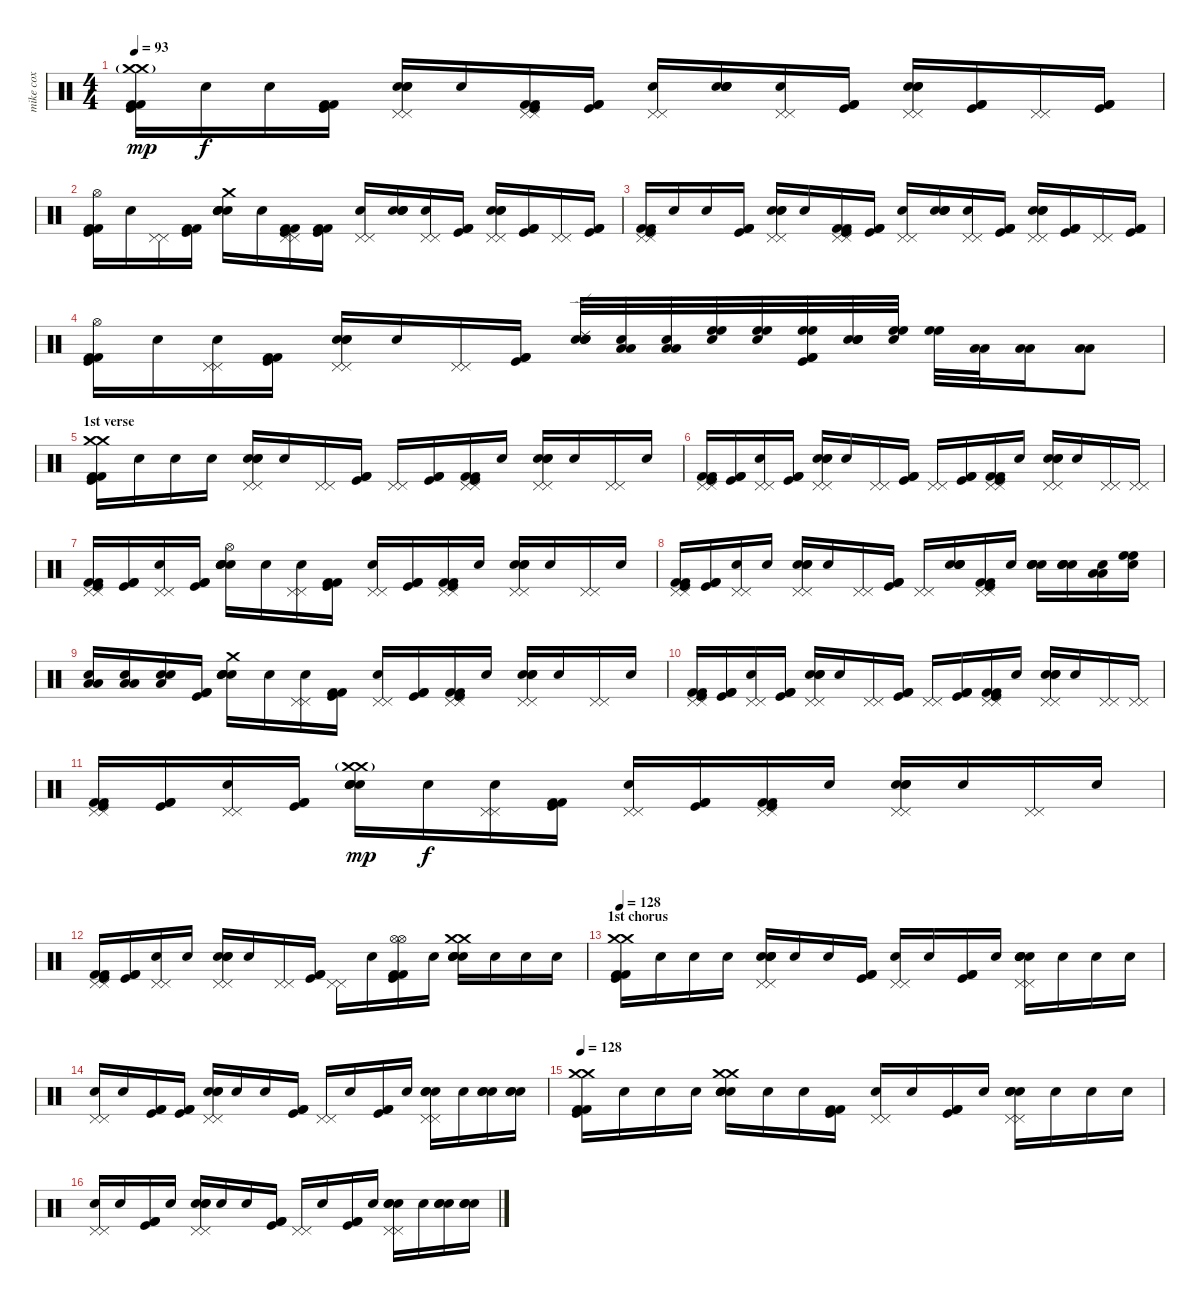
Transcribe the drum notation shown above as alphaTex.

\track ("mike cox" "mike cox") {instrument percussion}
\staff {score}
\articulation defaults
\ts (4 4)
\tempo 93
\clef neutral
\ks c
("Crash medium (hit)"{g} "Crash medium (hit)"{g} "Kick (hit)" "Kick (hit) 2" "Kick (hit) 2").16{dy mp} "Snare (hit)".16{dy f} "Snare (hit)".16 ("Kick (hit)" "Kick (hit) 2" "Kick (hit) 2").16 ("Pedal Hi-Hat (hit)" "Electric Snare (hit)" "Electric Snare (hit)" "Snare (hit) 2" "Pedal Hi-Hat (hit)").16 "Snare (hit)".16 ("Pedal Hi-Hat (hit)" "Pedal Hi-Hat (hit)" "Kick (hit)" "Kick (hit) 2" "Kick (hit) 2").16 ("Kick (hit)" "Kick (hit) 2" "Kick (hit) 2").16 ("Pedal Hi-Hat (hit)" "Pedal Hi-Hat (hit)" "Snare (hit)").16 ("Electric Snare (hit)" "Electric Snare (hit)" "Snare (hit) 2" "Snare (hit)").16 ("Pedal Hi-Hat (hit)" "Pedal Hi-Hat (hit)" "Snare (hit)").16 ("Kick (hit)" "Kick (hit) 2" "Kick (hit) 2").16 ("Pedal Hi-Hat (hit)" "Electric Snare (hit)" "Electric Snare (hit)" "Snare (hit) 2" "Pedal Hi-Hat (hit)").16 ("Kick (hit)" "Kick (hit) 2" "Kick (hit) 2").16 ("Pedal Hi-Hat (hit)" "Pedal Hi-Hat (hit)").16 ("Kick (hit)" "Kick (hit) 2" "Kick (hit) 2").16 |
("Hi-Hat (open)" "Kick (hit)" "Kick (hit) 2" "Kick (hit) 2").16 "Snare (hit)".16 ("Pedal Hi-Hat (hit)" "Pedal Hi-Hat (hit)").16 ("Kick (hit)" "Kick (hit) 2" "Kick (hit) 2").16 ("Crash medium (hit)" "Electric Snare (hit)" "Electric Snare (hit)" "Snare (hit) 2" "Snare (hit)").16 "Snare (hit)".16 ("Pedal Hi-Hat (hit)" "Pedal Hi-Hat (hit)" "Kick (hit)" "Kick (hit) 2" "Kick (hit) 2").16 ("Kick (hit)" "Kick (hit) 2" "Kick (hit) 2").16 ("Pedal Hi-Hat (hit)" "Pedal Hi-Hat (hit)" "Snare (hit)").16 ("Electric Snare (hit)" "Electric Snare (hit)" "Snare (hit) 2" "Snare (hit)").16 ("Pedal Hi-Hat (hit)" "Pedal Hi-Hat (hit)" "Snare (hit)").16 ("Kick (hit)" "Kick (hit) 2" "Kick (hit) 2").16 ("Pedal Hi-Hat (hit)" "Electric Snare (hit)" "Electric Snare (hit)" "Snare (hit) 2" "Pedal Hi-Hat (hit)").16 ("Kick (hit)" "Kick (hit) 2" "Kick (hit) 2").16 ("Pedal Hi-Hat (hit)" "Pedal Hi-Hat (hit)").16 ("Kick (hit)" "Kick (hit) 2" "Kick (hit) 2").16 |
("Pedal Hi-Hat (hit)" "Pedal Hi-Hat (hit)" "Kick (hit)" "Kick (hit) 2" "Kick (hit) 2").16 "Snare (hit)".16 "Snare (hit)".16 ("Kick (hit)" "Kick (hit) 2" "Kick (hit) 2").16 ("Pedal Hi-Hat (hit)" "Electric Snare (hit)" "Electric Snare (hit)" "Snare (hit) 2" "Pedal Hi-Hat (hit)").16 "Snare (hit)".16 ("Pedal Hi-Hat (hit)" "Pedal Hi-Hat (hit)" "Kick (hit)" "Kick (hit) 2" "Kick (hit) 2").16 ("Kick (hit)" "Kick (hit) 2" "Kick (hit) 2").16 ("Pedal Hi-Hat (hit)" "Pedal Hi-Hat (hit)" "Snare (hit)").16 ("Electric Snare (hit)" "Electric Snare (hit)" "Snare (hit) 2" "Snare (hit)").16 ("Pedal Hi-Hat (hit)" "Pedal Hi-Hat (hit)" "Snare (hit)").16 ("Kick (hit)" "Kick (hit) 2" "Kick (hit) 2").16 ("Pedal Hi-Hat (hit)" "Electric Snare (hit)" "Electric Snare (hit)" "Snare (hit) 2" "Pedal Hi-Hat (hit)").16 ("Kick (hit)" "Kick (hit) 2" "Kick (hit) 2").16 ("Pedal Hi-Hat (hit)" "Pedal Hi-Hat (hit)").16 ("Kick (hit)" "Kick (hit) 2" "Kick (hit) 2").16 |
("Hi-Hat (open)" "Kick (hit)" "Kick (hit) 2" "Kick (hit) 2").16 "Snare (hit)".16 ("Pedal Hi-Hat (hit)" "Pedal Hi-Hat (hit)" "Snare (hit)").16 ("Kick (hit)" "Kick (hit) 2" "Kick (hit) 2").16 ("Pedal Hi-Hat (hit)" "Electric Snare (hit)" "Electric Snare (hit)" "Snare (hit) 2" "Pedal Hi-Hat (hit)").16 "Snare (hit)".16 ("Pedal Hi-Hat (hit)" "Pedal Hi-Hat (hit)").16 ("Kick (hit)" "Kick (hit) 2" "Kick (hit) 2").16 ("Ride (edge) 2" "Electric Snare (hit)" "Electric Snare (hit)" "Snare (hit) 2" "Snare (hit)").32 ("Low Tom (hit)" "Low Tom (hit)" "Snare (hit)").32 ("Low Tom (hit)" "Low Tom (hit)" "Snare (hit)").32 ("High Floor Tom (hit)" "High Floor Tom (hit)" "Snare (hit)").32 ("High Floor Tom (hit)" "High Floor Tom (hit)" "Snare (hit)").32 ("High Floor Tom (hit)" "High Floor Tom (hit)" "Kick (hit)" "Kick (hit) 2" "Kick (hit) 2").32 ("Electric Snare (hit)" "Electric Snare (hit)" "Snare (hit) 2" "Snare (hit)").32 ("High Floor Tom (hit)" "High Floor Tom (hit)" "Snare (hit)").32 ("High Floor Tom (hit)" "High Floor Tom (hit)").32 ("Low Floor Tom (hit)" "Low Floor Tom (hit)").32 ("Low Floor Tom (hit)" "Low Floor Tom (hit)").16 ("Low Floor Tom (hit)" "Low Floor Tom (hit)").8 |
\section ("" "1st verse")
("Crash medium (hit)" "Crash medium (hit)" "Kick (hit)" "Kick (hit) 2" "Kick (hit) 2").16 "Snare (hit)".16 "Snare (hit)".16 "Snare (hit)".16 ("Pedal Hi-Hat (hit)" "Electric Snare (hit)" "Electric Snare (hit)" "Snare (hit) 2" "Pedal Hi-Hat (hit)").16 "Snare (hit)".16 ("Pedal Hi-Hat (hit)" "Pedal Hi-Hat (hit)").16 ("Kick (hit) 2" "Kick (hit)" "Kick (hit) 2").16 ("Pedal Hi-Hat (hit)" "Pedal Hi-Hat (hit)").16 ("Kick (hit)" "Kick (hit) 2" "Kick (hit) 2").16 ("Pedal Hi-Hat (hit)" "Pedal Hi-Hat (hit)" "Kick (hit)" "Kick (hit) 2" "Kick (hit) 2").16 "Snare (hit)".16 ("Pedal Hi-Hat (hit)" "Electric Snare (hit)" "Electric Snare (hit)" "Snare (hit) 2" "Pedal Hi-Hat (hit)").16 "Snare (hit)".16 ("Pedal Hi-Hat (hit)" "Pedal Hi-Hat (hit)").16 "Snare (hit)".16 |
("Pedal Hi-Hat (hit)" "Pedal Hi-Hat (hit)" "Kick (hit)" "Kick (hit) 2" "Kick (hit) 2").16 ("Kick (hit)" "Kick (hit) 2" "Kick (hit) 2").16 ("Pedal Hi-Hat (hit)" "Pedal Hi-Hat (hit)" "Snare (hit)").16 ("Kick (hit)" "Kick (hit) 2" "Kick (hit) 2").16 ("Pedal Hi-Hat (hit)" "Electric Snare (hit)" "Electric Snare (hit)" "Snare (hit) 2" "Pedal Hi-Hat (hit)").16 "Snare (hit)".16 ("Pedal Hi-Hat (hit)" "Pedal Hi-Hat (hit)").16 ("Kick (hit) 2" "Kick (hit)" "Kick (hit) 2").16 ("Pedal Hi-Hat (hit)" "Pedal Hi-Hat (hit)").16 ("Kick (hit)" "Kick (hit) 2" "Kick (hit) 2").16 ("Pedal Hi-Hat (hit)" "Pedal Hi-Hat (hit)" "Kick (hit)" "Kick (hit) 2" "Kick (hit) 2").16 "Snare (hit)".16 ("Pedal Hi-Hat (hit)" "Electric Snare (hit)" "Electric Snare (hit)" "Snare (hit) 2" "Pedal Hi-Hat (hit)").16 "Snare (hit)".16 ("Pedal Hi-Hat (hit)" "Pedal Hi-Hat (hit)").16 ("Pedal Hi-Hat (hit)" "Pedal Hi-Hat (hit)").16 |
("Pedal Hi-Hat (hit)" "Pedal Hi-Hat (hit)" "Kick (hit)" "Kick (hit) 2" "Kick (hit) 2").16 ("Kick (hit)" "Kick (hit) 2" "Kick (hit) 2").16 ("Pedal Hi-Hat (hit)" "Pedal Hi-Hat (hit)" "Snare (hit)").16 ("Kick (hit)" "Kick (hit) 2" "Kick (hit) 2").16 ("Hi-Hat (open)" "Electric Snare (hit)" "Electric Snare (hit)" "Snare (hit) 2" "Snare (hit)").16 "Snare (hit)".16 ("Pedal Hi-Hat (hit)" "Pedal Hi-Hat (hit)" "Snare (hit)").16 ("Kick (hit) 2" "Kick (hit)" "Kick (hit) 2").16 ("Pedal Hi-Hat (hit)" "Pedal Hi-Hat (hit)" "Snare (hit)").16 ("Kick (hit)" "Kick (hit) 2" "Kick (hit) 2").16 ("Pedal Hi-Hat (hit)" "Pedal Hi-Hat (hit)" "Kick (hit)" "Kick (hit) 2" "Kick (hit) 2").16 "Snare (hit)".16 ("Pedal Hi-Hat (hit)" "Electric Snare (hit)" "Electric Snare (hit)" "Snare (hit) 2" "Pedal Hi-Hat (hit)").16 "Snare (hit)".16 ("Pedal Hi-Hat (hit)" "Pedal Hi-Hat (hit)").16 "Snare (hit)".16 |
("Pedal Hi-Hat (hit)" "Pedal Hi-Hat (hit)" "Kick (hit)" "Kick (hit) 2" "Kick (hit) 2").16 ("Kick (hit)" "Kick (hit) 2" "Kick (hit) 2").16 ("Pedal Hi-Hat (hit)" "Pedal Hi-Hat (hit)" "Snare (hit)").16 "Snare (hit)".16 ("Pedal Hi-Hat (hit)" "Electric Snare (hit)" "Electric Snare (hit)" "Snare (hit) 2" "Pedal Hi-Hat (hit)").16 "Snare (hit)".16 ("Pedal Hi-Hat (hit)" "Pedal Hi-Hat (hit)").16 ("Kick (hit) 2" "Kick (hit)" "Kick (hit) 2").16 ("Pedal Hi-Hat (hit)" "Pedal Hi-Hat (hit)").16 ("Electric Snare (hit)" "Electric Snare (hit)" "Snare (hit) 2" "Snare (hit)").16 ("Pedal Hi-Hat (hit)" "Pedal Hi-Hat (hit)" "Kick (hit)" "Kick (hit) 2" "Kick (hit) 2").16 "Snare (hit)".16 ("Electric Snare (hit)" "Electric Snare (hit)" "Snare (hit) 2" "Snare (hit)").16 ("Electric Snare (hit)" "Electric Snare (hit)" "Snare (hit) 2" "Snare (hit)").16 ("Low Tom (hit)" "Low Tom (hit)" "Snare (hit)").16 ("High Floor Tom (hit)" "High Floor Tom (hit)" "Snare (hit)").16 |
("Low Floor Tom (hit)" "Low Floor Tom (hit)" "Snare (hit)").16 ("Low Floor Tom (hit)" "Low Floor Tom (hit)" "Snare (hit)").16 ("Low Floor Tom (hit)" "Snare (hit)" "Snare (hit)").16 ("Kick (hit)" "Kick (hit) 2" "Kick (hit) 2").16 ("Crash medium (hit)" "Electric Snare (hit)" "Electric Snare (hit)" "Snare (hit) 2" "Snare (hit)").16 "Snare (hit)".16 ("Pedal Hi-Hat (hit)" "Pedal Hi-Hat (hit)" "Snare (hit)").16 ("Kick (hit) 2" "Kick (hit)" "Kick (hit) 2").16 ("Pedal Hi-Hat (hit)" "Pedal Hi-Hat (hit)" "Snare (hit)").16 ("Kick (hit)" "Kick (hit) 2" "Kick (hit) 2").16 ("Pedal Hi-Hat (hit)" "Pedal Hi-Hat (hit)" "Kick (hit)" "Kick (hit) 2" "Kick (hit) 2").16 "Snare (hit)".16 ("Pedal Hi-Hat (hit)" "Electric Snare (hit)" "Electric Snare (hit)" "Snare (hit) 2" "Pedal Hi-Hat (hit)").16 "Snare (hit)".16 ("Pedal Hi-Hat (hit)" "Pedal Hi-Hat (hit)").16 "Snare (hit)".16 |
("Pedal Hi-Hat (hit)" "Pedal Hi-Hat (hit)" "Kick (hit)" "Kick (hit) 2" "Kick (hit) 2").16 ("Kick (hit)" "Kick (hit) 2" "Kick (hit) 2").16 ("Pedal Hi-Hat (hit)" "Pedal Hi-Hat (hit)" "Snare (hit)").16 ("Kick (hit)" "Kick (hit) 2" "Kick (hit) 2").16 ("Pedal Hi-Hat (hit)" "Electric Snare (hit)" "Electric Snare (hit)" "Snare (hit) 2" "Pedal Hi-Hat (hit)").16 "Snare (hit)".16 ("Pedal Hi-Hat (hit)" "Pedal Hi-Hat (hit)").16 ("Kick (hit) 2" "Kick (hit)" "Kick (hit) 2").16 ("Pedal Hi-Hat (hit)" "Pedal Hi-Hat (hit)").16 ("Kick (hit)" "Kick (hit) 2" "Kick (hit) 2").16 ("Pedal Hi-Hat (hit)" "Pedal Hi-Hat (hit)" "Kick (hit)" "Kick (hit) 2" "Kick (hit) 2").16 "Snare (hit)".16 ("Pedal Hi-Hat (hit)" "Electric Snare (hit)" "Electric Snare (hit)" "Snare (hit) 2" "Pedal Hi-Hat (hit)").16 "Snare (hit)".16 ("Pedal Hi-Hat (hit)" "Pedal Hi-Hat (hit)").16 ("Pedal Hi-Hat (hit)" "Pedal Hi-Hat (hit)").16 |
("Pedal Hi-Hat (hit)" "Pedal Hi-Hat (hit)" "Kick (hit)" "Kick (hit) 2" "Kick (hit) 2").16 ("Kick (hit)" "Kick (hit) 2" "Kick (hit) 2").16 ("Pedal Hi-Hat (hit)" "Pedal Hi-Hat (hit)" "Snare (hit)").16 ("Kick (hit)" "Kick (hit) 2" "Kick (hit) 2").16 ("Crash medium (hit)"{g} "Electric Snare (hit)" "Electric Snare (hit)" "Snare (hit) 2" "Crash medium (hit)"{g} "Snare (hit)").16{dy mp} "Snare (hit)".16{dy f} ("Pedal Hi-Hat (hit)" "Pedal Hi-Hat (hit)" "Snare (hit)").16 ("Kick (hit) 2" "Kick (hit)" "Kick (hit) 2").16 ("Pedal Hi-Hat (hit)" "Pedal Hi-Hat (hit)" "Snare (hit)").16 ("Kick (hit)" "Kick (hit) 2" "Kick (hit) 2").16 ("Pedal Hi-Hat (hit)" "Pedal Hi-Hat (hit)" "Kick (hit)" "Kick (hit) 2" "Kick (hit) 2").16 "Snare (hit)".16 ("Pedal Hi-Hat (hit)" "Electric Snare (hit)" "Electric Snare (hit)" "Snare (hit) 2" "Pedal Hi-Hat (hit)").16 "Snare (hit)".16 ("Pedal Hi-Hat (hit)" "Pedal Hi-Hat (hit)").16 "Snare (hit)".16 |
("Pedal Hi-Hat (hit)" "Pedal Hi-Hat (hit)" "Kick (hit)" "Kick (hit) 2" "Kick (hit) 2").16 ("Kick (hit)" "Kick (hit) 2" "Kick (hit) 2").16 ("Pedal Hi-Hat (hit)" "Pedal Hi-Hat (hit)" "Snare (hit)").16 "Snare (hit)".16 ("Pedal Hi-Hat (hit)" "Electric Snare (hit)" "Electric Snare (hit)" "Snare (hit) 2" "Pedal Hi-Hat (hit)").16 "Snare (hit)".16 ("Pedal Hi-Hat (hit)" "Pedal Hi-Hat (hit)").16 ("Kick (hit) 2" "Kick (hit)" "Kick (hit) 2").16 ("Pedal Hi-Hat (hit)" "Pedal Hi-Hat (hit)").16 "Snare (hit)".16 ("Hi-Hat (open)" "Hi-Hat (open)" "Kick (hit)" "Kick (hit) 2" "Kick (hit) 2").16 "Snare (hit)".16 ("Crash medium (hit)" "Electric Snare (hit)" "Electric Snare (hit)" "Snare (hit) 2" "Crash medium (hit)" "Snare (hit)").16 "Snare (hit)".16 "Snare (hit)".16 "Snare (hit)".16 |
\section ("" "1st chorus")
\tempo 128
("Crash medium (hit)" "Crash medium (hit)" "Kick (hit)" "Kick (hit) 2" "Kick (hit) 2").16 "Snare (hit)".16 "Snare (hit)".16 "Snare (hit)".16 ("Pedal Hi-Hat (hit)" "Pedal Hi-Hat (hit)" "Electric Snare (hit)" "Electric Snare (hit)" "Snare (hit) 2" "Snare (hit)").16 "Snare (hit)".16 "Snare (hit)".16 ("Kick (hit)" "Kick (hit) 2" "Kick (hit) 2").16 ("Pedal Hi-Hat (hit)" "Pedal Hi-Hat (hit)" "Snare (hit)").16 "Snare (hit)".16 ("Kick (hit)" "Kick (hit) 2" "Kick (hit) 2").16 "Snare (hit)".16 ("Pedal Hi-Hat (hit)" "Pedal Hi-Hat (hit)" "Electric Snare (hit)" "Electric Snare (hit)" "Snare (hit) 2" "Snare (hit)").16 "Snare (hit)".16 "Snare (hit)".16 "Snare (hit)".16 |
("Pedal Hi-Hat (hit)" "Pedal Hi-Hat (hit)" "Snare (hit)").16 "Snare (hit)".16 ("Kick (hit)" "Kick (hit) 2" "Kick (hit) 2").16 ("Kick (hit)" "Kick (hit) 2" "Kick (hit) 2").16 ("Pedal Hi-Hat (hit)" "Pedal Hi-Hat (hit)" "Electric Snare (hit)" "Electric Snare (hit)" "Snare (hit) 2").16 "Snare (hit)".16 "Snare (hit)".16 ("Kick (hit)" "Kick (hit) 2" "Kick (hit) 2").16 ("Pedal Hi-Hat (hit)" "Pedal Hi-Hat (hit)").16 "Snare (hit)".16 ("Kick (hit)" "Kick (hit) 2" "Kick (hit) 2").16 "Snare (hit)".16 ("Pedal Hi-Hat (hit)" "Pedal Hi-Hat (hit)" "Electric Snare (hit)" "Electric Snare (hit)" "Snare (hit) 2").16 "Snare (hit)".16 ("Electric Snare (hit)" "Electric Snare (hit)" "Snare (hit) 2").16 ("Electric Snare (hit)" "Electric Snare (hit)" "Snare (hit) 2").16 |
\tempo 128
("Crash medium (hit)" "Crash medium (hit)" "Kick (hit)" "Kick (hit) 2" "Kick (hit) 2").16 "Snare (hit)".16 "Snare (hit)".16 "Snare (hit)".16 ("Crash medium (hit)" "Crash medium (hit)" "Electric Snare (hit)" "Electric Snare (hit)" "Snare (hit) 2" "Snare (hit)").16 "Snare (hit)".16 "Snare (hit)".16 ("Kick (hit)" "Kick (hit) 2" "Kick (hit) 2").16 ("Pedal Hi-Hat (hit)" "Pedal Hi-Hat (hit)" "Snare (hit)").16 "Snare (hit)".16 ("Kick (hit)" "Kick (hit) 2" "Kick (hit) 2").16 "Snare (hit)".16 ("Pedal Hi-Hat (hit)" "Pedal Hi-Hat (hit)" "Electric Snare (hit)" "Electric Snare (hit)" "Snare (hit) 2" "Snare (hit)").16 "Snare (hit)".16 "Snare (hit)".16 "Snare (hit)".16 |
("Pedal Hi-Hat (hit)" "Pedal Hi-Hat (hit)" "Snare (hit)").16 "Snare (hit)".16 ("Kick (hit)" "Kick (hit) 2" "Kick (hit) 2").16 "Snare (hit)".16 ("Pedal Hi-Hat (hit)" "Pedal Hi-Hat (hit)" "Electric Snare (hit)" "Electric Snare (hit)" "Snare (hit) 2").16 "Snare (hit)".16 "Snare (hit)".16 ("Kick (hit)" "Kick (hit) 2" "Kick (hit) 2").16 ("Pedal Hi-Hat (hit)" "Pedal Hi-Hat (hit)").16 "Snare (hit)".16 ("Kick (hit)" "Kick (hit) 2" "Kick (hit) 2").16 "Snare (hit)".16 ("Pedal Hi-Hat (hit)" "Pedal Hi-Hat (hit)" "Electric Snare (hit)" "Electric Snare (hit)" "Snare (hit) 2").16 "Snare (hit)".16 ("Electric Snare (hit)" "Electric Snare (hit)" "Snare (hit) 2").16 ("Electric Snare (hit)" "Electric Snare (hit)" "Snare (hit) 2").16
